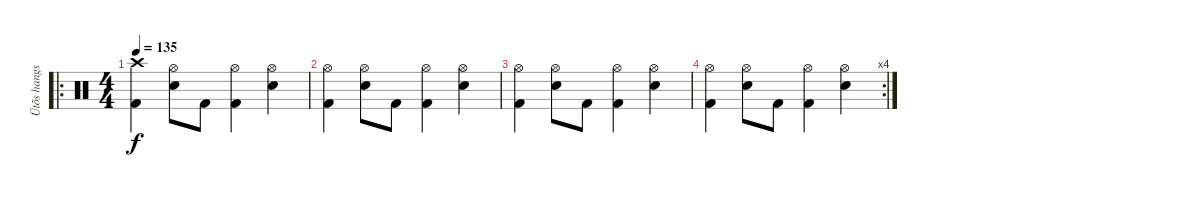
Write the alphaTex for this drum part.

\track ("Ütõs hangszer" "Ütõs hangs") {instrument percussion}
\staff {score}
\articulation defaults
\ro
\ts (4 4)
\tempo 135
\clef neutral
\ks c
("Crash high (hit)" "Kick (hit) 2").4{dy f} ("Hi-Hat (open)" "Snare (hit) 2").8 "Kick (hit) 2".8 ("Hi-Hat (open)" "Kick (hit) 2").4 ("Hi-Hat (open)" "Snare (hit) 2").4 |
("Hi-Hat (open)" "Kick (hit) 2").4 ("Hi-Hat (open)" "Snare (hit) 2").8 "Kick (hit) 2".8 ("Hi-Hat (open)" "Kick (hit) 2").4 ("Hi-Hat (open)" "Snare (hit) 2").4 |
("Hi-Hat (open)" "Kick (hit) 2").4 ("Hi-Hat (open)" "Snare (hit) 2").8 "Kick (hit) 2".8 ("Hi-Hat (open)" "Kick (hit) 2").4 ("Hi-Hat (open)" "Snare (hit) 2").4 |
\rc 4
("Hi-Hat (open)" "Kick (hit) 2").4 ("Hi-Hat (open)" "Snare (hit) 2").8 "Kick (hit) 2".8 ("Hi-Hat (open)" "Kick (hit) 2").4 ("Hi-Hat (open)" "Snare (hit) 2").4
